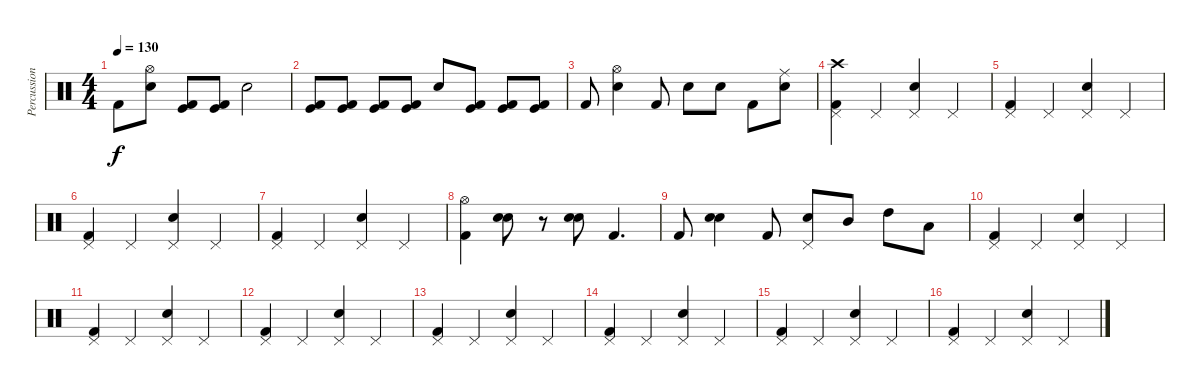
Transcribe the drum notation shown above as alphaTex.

\track ("Percussion 2" "Percussion") {instrument percussion}
\staff {score}
\articulation defaults
\ts (4 4)
\tempo 130
\clef neutral
\ks c "Kick (hit) 2".8{dy f}
("Snare (hit) 2" "Hi-Hat (open)").8 ("Kick (hit) 2" "Kick (hit)").8 ("Kick (hit) 2" "Kick (hit)").8 "Snare (hit) 2".2 |
("Kick (hit) 2" "Kick (hit)").8 ("Kick (hit) 2" "Kick (hit)").8 ("Kick (hit) 2" "Kick (hit)").8 ("Kick (hit) 2" "Kick (hit)").8 "Snare (hit) 2".8 ("Kick (hit) 2" "Kick (hit)").8 ("Kick (hit) 2" "Kick (hit)").8 ("Kick (hit) 2" "Kick (hit)").8 |
"Kick (hit) 2".8 ("Snare (hit) 2" "Hi-Hat (open)").4 "Kick (hit) 2".8 "Snare (hit) 2".8 "Snare (hit) 2".8 "Kick (hit) 2".8 ("Snare (hit) 2" "Ride (middle)").8 |
("Pedal Hi-Hat (hit)" "Crash high (hit)" "Kick (hit) 2").4 "Pedal Hi-Hat (hit)".4 ("Pedal Hi-Hat (hit)" "Snare (hit) 2").4 "Pedal Hi-Hat (hit)".4 |
("Pedal Hi-Hat (hit)" "Kick (hit) 2").4 "Pedal Hi-Hat (hit)".4 ("Pedal Hi-Hat (hit)" "Snare (hit) 2").4 "Pedal Hi-Hat (hit)".4 |
("Pedal Hi-Hat (hit)" "Kick (hit) 2").4 "Pedal Hi-Hat (hit)".4 ("Pedal Hi-Hat (hit)" "Snare (hit) 2").4 "Pedal Hi-Hat (hit)".4 |
("Pedal Hi-Hat (hit)" "Kick (hit) 2").4 "Pedal Hi-Hat (hit)".4 ("Pedal Hi-Hat (hit)" "Snare (hit) 2").4 "Pedal Hi-Hat (hit)".4 |
("Hi-Hat (open)" "Kick (hit) 2").4 ("Electric Snare (hit)" "Snare (hit) 2").8 r.8 ("Electric Snare (hit)" "Snare (hit) 2").8 "Kick (hit) 2".4{d} |
"Kick (hit) 2".8 ("Electric Snare (hit)" "Snare (hit) 2").4 "Kick (hit) 2".8 ("Pedal Hi-Hat (hit)" "Snare (hit) 2").8 "Mid Tom (hit)".8 "High Tom (hit)".8 "Low Tom (hit)".8 |
("Pedal Hi-Hat (hit)" "Kick (hit) 2").4 "Pedal Hi-Hat (hit)".4 ("Pedal Hi-Hat (hit)" "Snare (hit) 2").4 "Pedal Hi-Hat (hit)".4 |
("Pedal Hi-Hat (hit)" "Kick (hit) 2").4 "Pedal Hi-Hat (hit)".4 ("Pedal Hi-Hat (hit)" "Snare (hit) 2").4 "Pedal Hi-Hat (hit)".4 |
("Pedal Hi-Hat (hit)" "Kick (hit) 2").4 "Pedal Hi-Hat (hit)".4 ("Pedal Hi-Hat (hit)" "Snare (hit) 2").4 "Pedal Hi-Hat (hit)".4 |
("Pedal Hi-Hat (hit)" "Kick (hit) 2").4 "Pedal Hi-Hat (hit)".4 ("Pedal Hi-Hat (hit)" "Snare (hit) 2").4 "Pedal Hi-Hat (hit)".4 |
("Pedal Hi-Hat (hit)" "Kick (hit) 2").4 "Pedal Hi-Hat (hit)".4 ("Pedal Hi-Hat (hit)" "Snare (hit) 2").4 "Pedal Hi-Hat (hit)".4 |
("Pedal Hi-Hat (hit)" "Kick (hit) 2").4 "Pedal Hi-Hat (hit)".4 ("Pedal Hi-Hat (hit)" "Snare (hit) 2").4 "Pedal Hi-Hat (hit)".4 |
("Pedal Hi-Hat (hit)" "Kick (hit) 2").4 "Pedal Hi-Hat (hit)".4 ("Pedal Hi-Hat (hit)" "Snare (hit) 2").4 "Pedal Hi-Hat (hit)".4
